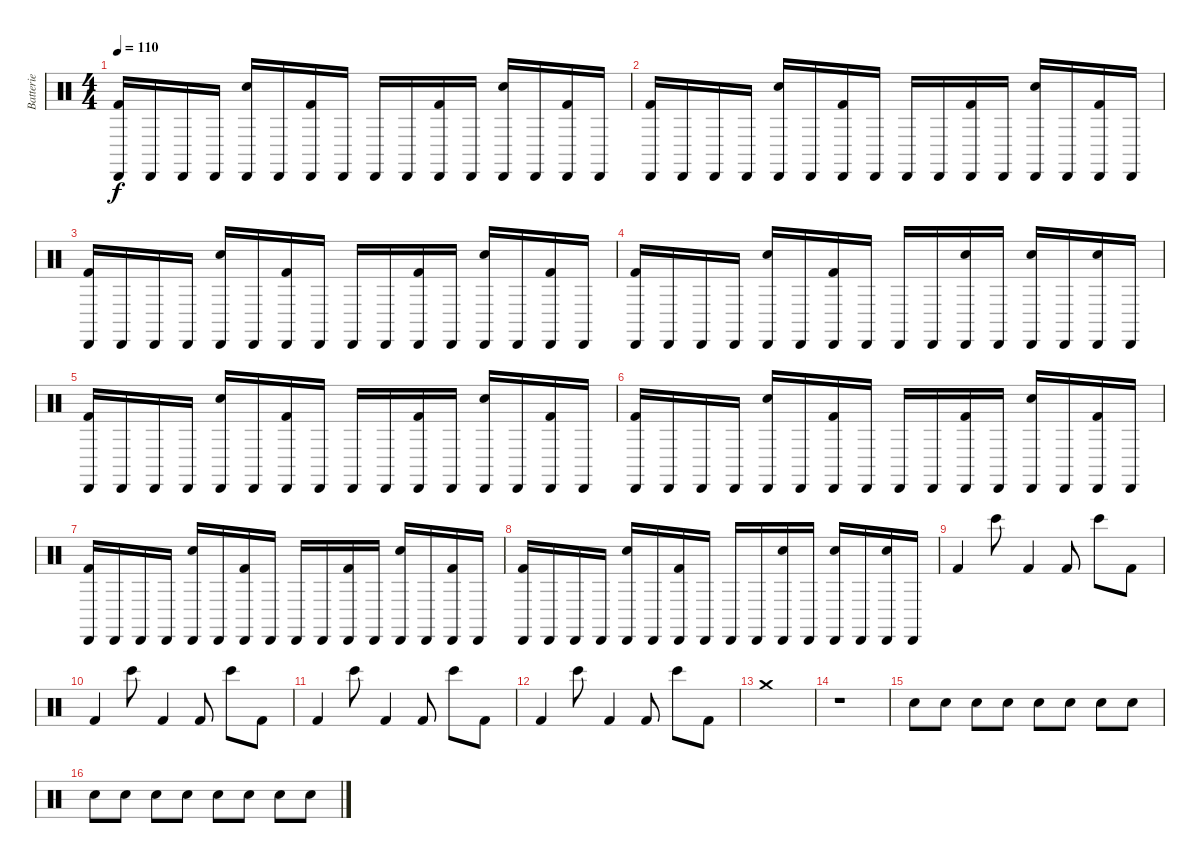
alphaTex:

\track ("Batterie" "Batterie") {instrument percussion}
\staff {score}
\articulation defaults
\ts (4 4)
\tempo 110
\clef neutral
\ks c
("Cabasa (hit)" "Kick (hit) 2").16{dy f} "Cabasa (hit)".16 "Cabasa (hit)".16 "Cabasa (hit)".16 ("Cabasa (hit)" "Snare (hit) 2").16 "Cabasa (hit)".16 ("Cabasa (hit)" "Kick (hit) 2").16 "Cabasa (hit)".16 "Cabasa (hit)".16 "Cabasa (hit)".16 ("Cabasa (hit)" "Kick (hit) 2").16 "Cabasa (hit)".16 ("Cabasa (hit)" "Snare (hit) 2").16 "Cabasa (hit)".16 ("Cabasa (hit)" "Kick (hit) 2").16 "Cabasa (hit)".16 |
("Cabasa (hit)" "Kick (hit) 2").16 "Cabasa (hit)".16 "Cabasa (hit)".16 "Cabasa (hit)".16 ("Cabasa (hit)" "Snare (hit) 2").16 "Cabasa (hit)".16 ("Cabasa (hit)" "Kick (hit) 2").16 "Cabasa (hit)".16 "Cabasa (hit)".16 "Cabasa (hit)".16 ("Cabasa (hit)" "Kick (hit) 2").16 "Cabasa (hit)".16 ("Cabasa (hit)" "Snare (hit) 2").16 "Cabasa (hit)".16 ("Cabasa (hit)" "Kick (hit) 2").16 "Cabasa (hit)".16 |
("Cabasa (hit)" "Kick (hit) 2").16 "Cabasa (hit)".16 "Cabasa (hit)".16 "Cabasa (hit)".16 ("Cabasa (hit)" "Snare (hit) 2").16 "Cabasa (hit)".16 ("Cabasa (hit)" "Kick (hit) 2").16 "Cabasa (hit)".16 "Cabasa (hit)".16 "Cabasa (hit)".16 ("Cabasa (hit)" "Kick (hit) 2").16 "Cabasa (hit)".16 ("Cabasa (hit)" "Snare (hit) 2").16 "Cabasa (hit)".16 ("Cabasa (hit)" "Kick (hit) 2").16 "Cabasa (hit)".16 |
("Cabasa (hit)" "Kick (hit) 2").16 "Cabasa (hit)".16 "Cabasa (hit)".16 "Cabasa (hit)".16 ("Cabasa (hit)" "Snare (hit) 2").16 "Cabasa (hit)".16 ("Cabasa (hit)" "Kick (hit) 2").16 "Cabasa (hit)".16 "Cabasa (hit)".16 "Cabasa (hit)".16 ("Cabasa (hit)" "Snare (hit) 2").16 "Cabasa (hit)".16 ("Cabasa (hit)" "Snare (hit) 2").16 "Cabasa (hit)".16 ("Cabasa (hit)" "Snare (hit) 2").16 "Cabasa (hit)".16 |
("Cabasa (hit)" "Kick (hit) 2").16 "Cabasa (hit)".16 "Cabasa (hit)".16 "Cabasa (hit)".16 ("Cabasa (hit)" "Snare (hit) 2").16 "Cabasa (hit)".16 ("Cabasa (hit)" "Kick (hit) 2").16 "Cabasa (hit)".16 "Cabasa (hit)".16 "Cabasa (hit)".16 ("Cabasa (hit)" "Kick (hit) 2").16 "Cabasa (hit)".16 ("Cabasa (hit)" "Snare (hit) 2").16 "Cabasa (hit)".16 ("Cabasa (hit)" "Kick (hit) 2").16 "Cabasa (hit)".16 |
("Cabasa (hit)" "Kick (hit) 2").16 "Cabasa (hit)".16 "Cabasa (hit)".16 "Cabasa (hit)".16 ("Cabasa (hit)" "Snare (hit) 2").16 "Cabasa (hit)".16 ("Cabasa (hit)" "Kick (hit) 2").16 "Cabasa (hit)".16 "Cabasa (hit)".16 "Cabasa (hit)".16 ("Cabasa (hit)" "Kick (hit) 2").16 "Cabasa (hit)".16 ("Cabasa (hit)" "Snare (hit) 2").16 "Cabasa (hit)".16 ("Cabasa (hit)" "Kick (hit) 2").16 "Cabasa (hit)".16 |
("Cabasa (hit)" "Kick (hit) 2").16 "Cabasa (hit)".16 "Cabasa (hit)".16 "Cabasa (hit)".16 ("Cabasa (hit)" "Snare (hit) 2").16 "Cabasa (hit)".16 ("Cabasa (hit)" "Kick (hit) 2").16 "Cabasa (hit)".16 "Cabasa (hit)".16 "Cabasa (hit)".16 ("Cabasa (hit)" "Kick (hit) 2").16 "Cabasa (hit)".16 ("Cabasa (hit)" "Snare (hit) 2").16 "Cabasa (hit)".16 ("Cabasa (hit)" "Kick (hit) 2").16 "Cabasa (hit)".16 |
("Cabasa (hit)" "Kick (hit) 2").16 "Cabasa (hit)".16 "Cabasa (hit)".16 "Cabasa (hit)".16 ("Cabasa (hit)" "Snare (hit) 2").16 "Cabasa (hit)".16 ("Cabasa (hit)" "Kick (hit) 2").16 "Cabasa (hit)".16 "Cabasa (hit)".16 "Cabasa (hit)".16 ("Cabasa (hit)" "Snare (hit) 2").16 "Cabasa (hit)".16 ("Cabasa (hit)" "Snare (hit) 2").16 "Cabasa (hit)".16 ("Cabasa (hit)" "Snare (hit) 2").16 "Cabasa (hit)".16 |
"Kick (hit) 2".4 "Bongo High (hit)".8 "Kick (hit) 2".4 "Kick (hit) 2".8 "Bongo High (hit)".8 "Kick (hit) 2".8 |
"Kick (hit) 2".4 "Bongo High (hit)".8 "Kick (hit) 2".4 "Kick (hit) 2".8 "Bongo High (hit)".8 "Kick (hit) 2".8 |
"Kick (hit) 2".4 "Bongo High (hit)".8 "Kick (hit) 2".4 "Kick (hit) 2".8 "Bongo High (hit)".8 "Kick (hit) 2".8 |
"Kick (hit) 2".4 "Bongo High (hit)".8 "Kick (hit) 2".4 "Kick (hit) 2".8 "Bongo High (hit)".8 "Kick (hit) 2".8 |
"Crash medium (hit)".1 |
r.1 |
"Snare (hit) 2".8 "Snare (hit) 2".8 "Snare (hit) 2".8 "Snare (hit) 2".8 "Snare (hit) 2".8 "Snare (hit) 2".8 "Snare (hit) 2".8 "Snare (hit) 2".8 |
"Snare (hit) 2".8 "Snare (hit) 2".8 "Snare (hit) 2".8 "Snare (hit) 2".8 "Snare (hit) 2".8 "Snare (hit) 2".8 "Snare (hit) 2".8 "Snare (hit) 2".8
